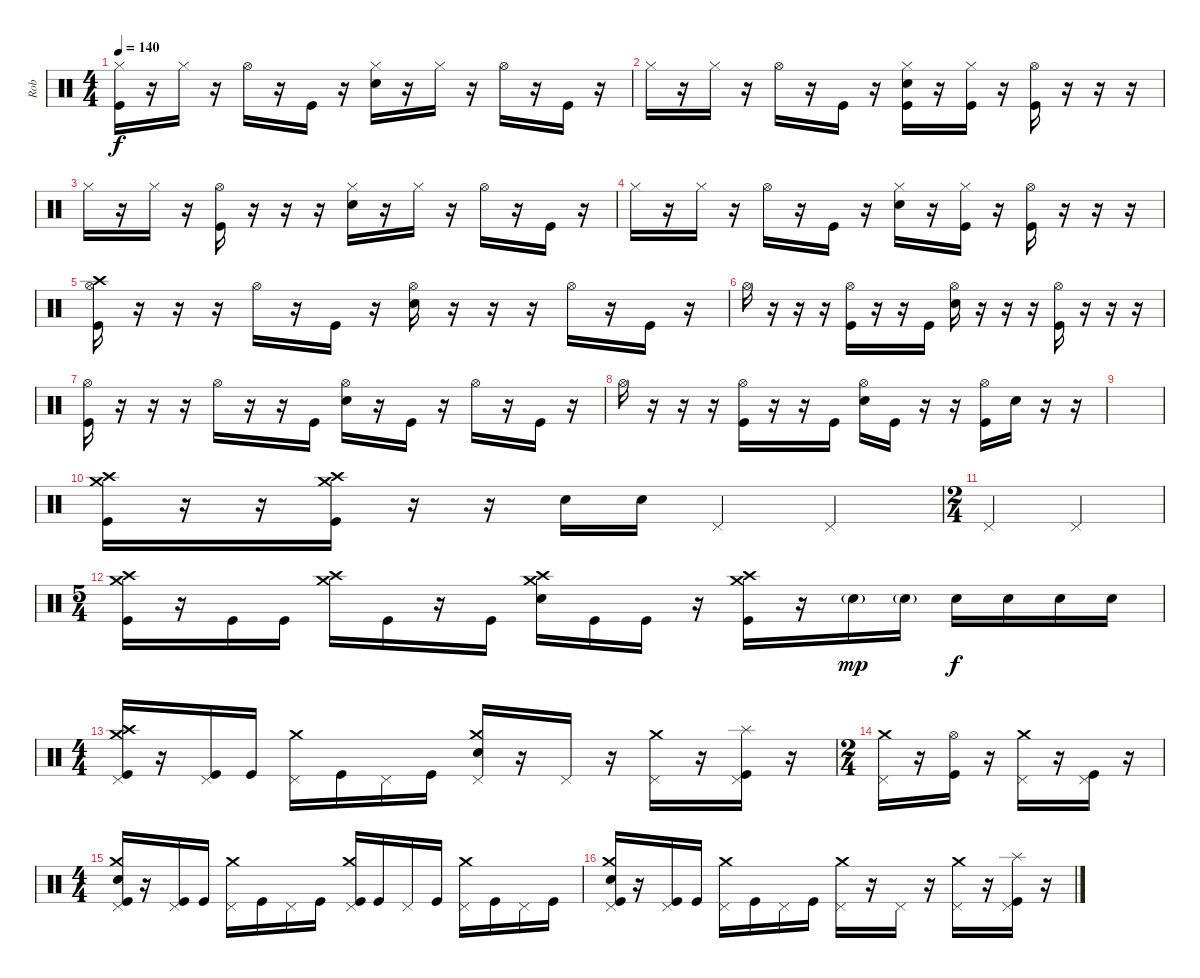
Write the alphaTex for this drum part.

\track ("Rob" "Rob") {instrument percussion}
\staff {score}
\articulation defaults
\ts (4 4)
\tempo 140
\clef neutral
\ks c
("Hi-Hat (closed)" "Kick (hit)").16{dy f} r.16 "Hi-Hat (closed)".16 r.16 "Hi-Hat (open)".16 r.16 "Kick (hit)".16 r.16 ("Electric Snare (hit)" "Hi-Hat (closed)").16 r.16 "Hi-Hat (closed)".16 r.16 "Hi-Hat (open)".16 r.16 "Kick (hit)".16 r.16 |
"Hi-Hat (closed)".16 r.16 "Hi-Hat (closed)".16 r.16 "Hi-Hat (open)".16 r.16 "Kick (hit)".16 r.16 ("Electric Snare (hit)" "Hi-Hat (closed)" "Kick (hit)").16 r.16 ("Hi-Hat (closed)" "Kick (hit)").16 r.16 ("Hi-Hat (open)" "Kick (hit)").16 r.16 r.16 r.16 |
"Hi-Hat (closed)".16 r.16 "Hi-Hat (closed)".16 r.16 ("Hi-Hat (open)" "Kick (hit)").16 r.16 r.16 r.16 ("Electric Snare (hit)" "Hi-Hat (closed)").16 r.16 "Hi-Hat (closed)".16 r.16 "Hi-Hat (open)".16 r.16 "Kick (hit)".16 r.16 |
"Hi-Hat (closed)".16 r.16 "Hi-Hat (closed)".16 r.16 "Hi-Hat (open)".16 r.16 "Kick (hit)".16 r.16 ("Electric Snare (hit)" "Hi-Hat (closed)").16 r.16 ("Hi-Hat (closed)" "Kick (hit)").16 r.16 ("Hi-Hat (open)" "Kick (hit)").16 r.16 r.16 r.16 |
("Crash high (hit)" "Hi-Hat (open)" "Kick (hit)").16 r.16 r.16 r.16 "Hi-Hat (open)".16 r.16 "Kick (hit)".16 r.16 ("Electric Snare (hit)" "Hi-Hat (open)").16 r.16 r.16 r.16 "Hi-Hat (open)".16 r.16 "Kick (hit)".16 r.16 |
"Hi-Hat (open)".16 r.16 r.16 r.16 ("Hi-Hat (open)" "Kick (hit)").16 r.16 r.16 "Kick (hit)".16 ("Electric Snare (hit)" "Hi-Hat (open)").16 r.16 r.16 r.16 ("Hi-Hat (open)" "Kick (hit)").16 r.16 r.16 r.16 |
("Hi-Hat (open)" "Kick (hit)").16 r.16 r.16 r.16 "Hi-Hat (open)".16 r.16 r.16 "Kick (hit)".16 ("Electric Snare (hit)" "Hi-Hat (open)").16 r.16 "Kick (hit)".16 r.16 "Hi-Hat (open)".16 r.16 "Kick (hit)".16 r.16 |
"Hi-Hat (open)".16 r.16 r.16 r.16 ("Hi-Hat (open)" "Kick (hit)").16 r.16 r.16 "Kick (hit)".16 ("Electric Snare (hit)" "Hi-Hat (open)").16 "Kick (hit)".16 r.16 r.16 ("Hi-Hat (open)" "Kick (hit)").16 "Electric Snare (hit)".16 r.16 r.16 |
|
("Crash high (hit)" "Crash medium (hit)" "Kick (hit)").16 r.16 r.16 ("Crash high (hit)" "Crash medium (hit)" "Kick (hit)").16 r.16 r.16 "Electric Snare (hit)".16 "Electric Snare (hit)".16 "Pedal Hi-Hat (hit)".4 "Pedal Hi-Hat (hit)".4 |
\ts (2 4)
"Pedal Hi-Hat (hit)".4 "Pedal Hi-Hat (hit)".4 |
\ts (5 4)
("Crash medium (hit)" "Crash high (hit)" "Kick (hit)").16 r.16 "Kick (hit)".16 "Kick (hit)".16 ("Crash medium (hit)" "Crash high (hit)").16 "Kick (hit)".16 r.16 "Kick (hit)".16 ("Electric Snare (hit)" "Crash medium (hit)" "Crash high (hit)").16 "Kick (hit)".16 "Kick (hit)".16 r.16 ("Crash medium (hit)" "Crash high (hit)" "Kick (hit)").16 r.16 "Electric Snare (hit)"{g}.16{dy mp} "Electric Snare (hit)"{g}.16 "Electric Snare (hit)".16{dy f} "Electric Snare (hit)".16 "Electric Snare (hit)".16 "Electric Snare (hit)".16 |
\ts (4 4)
("Crash high (hit)" "Crash medium (hit)" "Pedal Hi-Hat (hit)" "Kick (hit)").16 r.16 ("Pedal Hi-Hat (hit)" "Kick (hit)").16 "Kick (hit)".16 ("Crash medium (hit)" "Pedal Hi-Hat (hit)").16 "Kick (hit)".16 "Pedal Hi-Hat (hit)".16 "Kick (hit)".16 ("Electric Snare (hit)" "Crash medium (hit)" "Pedal Hi-Hat (hit)").16 r.16 "Pedal Hi-Hat (hit)".16 r.16 ("Crash medium (hit)" "Pedal Hi-Hat (hit)").16 r.16 ("Splash (hit)" "Pedal Hi-Hat (hit)" "Kick (hit)").16 r.16 |
\ts (2 4)
("Crash medium (hit)" "Pedal Hi-Hat (hit)").16 r.16 ("Hi-Hat (open)" "Kick (hit)").16 r.16 ("Crash medium (hit)" "Pedal Hi-Hat (hit)").16 r.16 ("Pedal Hi-Hat (hit)" "Kick (hit)").16 r.16 |
\ts (4 4)
("Electric Snare (hit)" "Crash medium (hit)" "Pedal Hi-Hat (hit)" "Kick (hit)").16 r.16 ("Pedal Hi-Hat (hit)" "Kick (hit)").16 "Kick (hit)".16 ("Crash medium (hit)" "Pedal Hi-Hat (hit)").16 "Kick (hit)".16 "Pedal Hi-Hat (hit)".16 "Kick (hit)".16 ("Crash medium (hit)" "Pedal Hi-Hat (hit)" "Kick (hit)").16 "Kick (hit)".16 "Pedal Hi-Hat (hit)".16 "Kick (hit)".16 ("Crash medium (hit)" "Pedal Hi-Hat (hit)").16 "Kick (hit)".16 "Pedal Hi-Hat (hit)".16 "Kick (hit)".16 |
("Electric Snare (hit)" "Crash medium (hit)" "Pedal Hi-Hat (hit)" "Kick (hit)").16 r.16 ("Pedal Hi-Hat (hit)" "Kick (hit)").16 "Kick (hit)".16 ("Crash medium (hit)" "Pedal Hi-Hat (hit)").16 "Kick (hit)".16 "Pedal Hi-Hat (hit)".16 "Kick (hit)".16 ("Crash medium (hit)" "Pedal Hi-Hat (hit)").16 r.16 "Pedal Hi-Hat (hit)".16 r.16 ("Crash medium (hit)" "Pedal Hi-Hat (hit)").16 r.16 ("Splash (hit)" "Pedal Hi-Hat (hit)" "Kick (hit)").16 r.16
